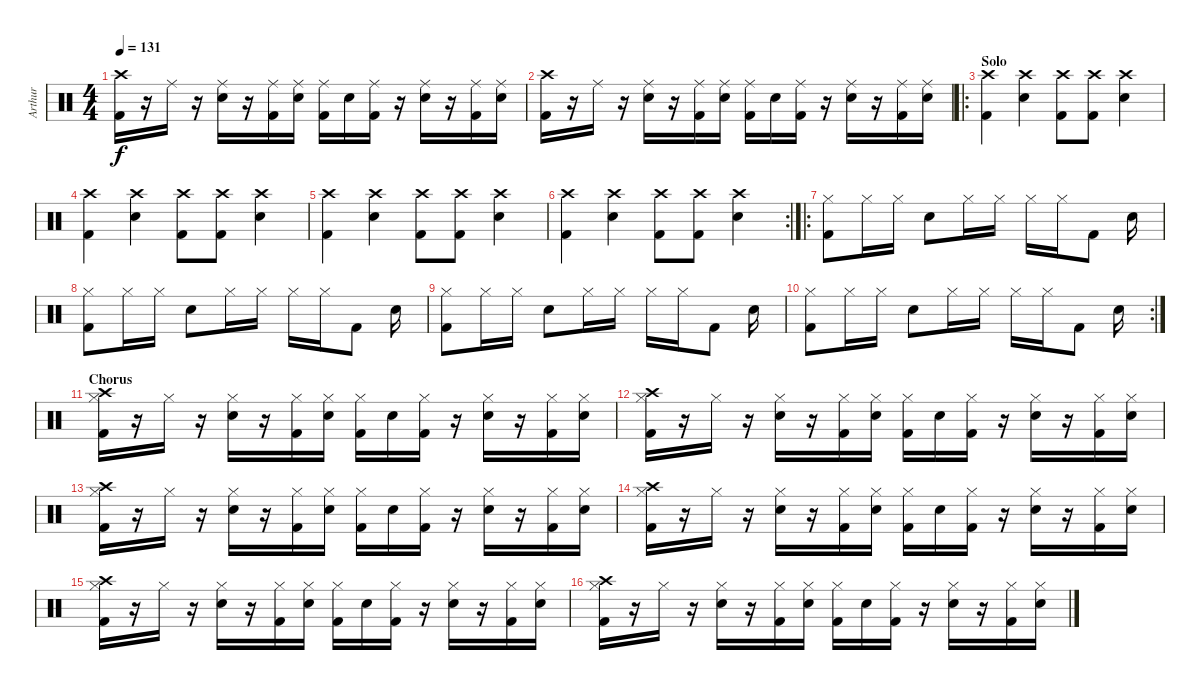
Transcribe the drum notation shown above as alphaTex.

\track ("Arthur" "Arthur") {instrument percussion}
\staff {score}
\articulation defaults
\ts (4 4)
\tempo 131
\clef neutral
\ks c
("Kick (hit) 2" "Crash high (hit)").16{dy f} r.16 "Ride (middle)".16 r.16 ("Ride (middle)" "Snare (hit) 2").16 r.16 ("Ride (middle)" "Kick (hit) 2").16 ("Ride (middle)" "Snare (hit) 2").16 ("Ride (middle)" "Kick (hit) 2").16 "Snare (hit) 2".16 ("Ride (middle)" "Kick (hit) 2").16 r.16 ("Ride (middle)" "Snare (hit) 2").16 r.16 ("Ride (middle)" "Kick (hit) 2").16 ("Ride (middle)" "Snare (hit) 2").16 |
("Kick (hit) 2" "Crash high (hit)").16 r.16 "Ride (middle)".16 r.16 ("Ride (middle)" "Snare (hit) 2").16 r.16 ("Ride (middle)" "Kick (hit) 2").16 ("Ride (middle)" "Snare (hit) 2").16 ("Ride (middle)" "Kick (hit) 2").16 "Snare (hit) 2".16 ("Ride (middle)" "Kick (hit) 2").16 r.16 ("Ride (middle)" "Snare (hit) 2").16 r.16 ("Ride (middle)" "Kick (hit) 2").16 ("Ride (middle)" "Snare (hit) 2").16 |
\ro
\section ("" "Solo")
("Crash high (hit)" "Kick (hit) 2").4 ("Crash high (hit)" "Snare (hit) 2").4 ("Crash high (hit)" "Kick (hit) 2").8 ("Crash high (hit)" "Kick (hit) 2").8 ("Crash high (hit)" "Snare (hit) 2").4 |
("Crash high (hit)" "Kick (hit) 2").4 ("Crash high (hit)" "Snare (hit) 2").4 ("Crash high (hit)" "Kick (hit) 2").8 ("Crash high (hit)" "Kick (hit) 2").8 ("Crash high (hit)" "Snare (hit) 2").4 |
("Crash high (hit)" "Kick (hit) 2").4 ("Crash high (hit)" "Snare (hit) 2").4 ("Crash high (hit)" "Kick (hit) 2").8 ("Crash high (hit)" "Kick (hit) 2").8 ("Crash high (hit)" "Snare (hit) 2").4 |
\rc 2
("Crash high (hit)" "Kick (hit) 2").4 ("Crash high (hit)" "Snare (hit) 2").4 ("Crash high (hit)" "Kick (hit) 2").8 ("Crash high (hit)" "Kick (hit) 2").8 ("Crash high (hit)" "Snare (hit) 2").4 |
\ro
("Hi-Hat (closed)" "Kick (hit) 2").8 "Hi-Hat (closed)".16 "Hi-Hat (closed)".16 "Snare (hit) 2".8 "Hi-Hat (closed)".16 "Hi-Hat (closed)".16 "Hi-Hat (closed)".16 "Hi-Hat (closed)".16 "Kick (hit) 2".8 "Snare (hit) 2".16 |
("Hi-Hat (closed)" "Kick (hit) 2").8 "Hi-Hat (closed)".16 "Hi-Hat (closed)".16 "Snare (hit) 2".8 "Hi-Hat (closed)".16 "Hi-Hat (closed)".16 "Hi-Hat (closed)".16 "Hi-Hat (closed)".16 "Kick (hit) 2".8 "Snare (hit) 2".16 |
("Hi-Hat (closed)" "Kick (hit) 2").8 "Hi-Hat (closed)".16 "Hi-Hat (closed)".16 "Snare (hit) 2".8 "Hi-Hat (closed)".16 "Hi-Hat (closed)".16 "Hi-Hat (closed)".16 "Hi-Hat (closed)".16 "Kick (hit) 2".8 "Snare (hit) 2".16 |
\rc 2
("Hi-Hat (closed)" "Kick (hit) 2").8 "Hi-Hat (closed)".16 "Hi-Hat (closed)".16 "Snare (hit) 2".8 "Hi-Hat (closed)".16 "Hi-Hat (closed)".16 "Hi-Hat (closed)".16 "Hi-Hat (closed)".16 "Kick (hit) 2".8 "Snare (hit) 2".16 |
\section ("" "Chorus")
("Hi-Hat (closed)" "Kick (hit) 2" "Crash high (hit)").16 r.16 "Hi-Hat (closed)".16 r.16 ("Hi-Hat (closed)" "Snare (hit) 2").16 r.16 ("Hi-Hat (closed)" "Kick (hit) 2").16 ("Hi-Hat (closed)" "Snare (hit) 2").16 ("Hi-Hat (closed)" "Kick (hit) 2").16 "Snare (hit) 2".16 ("Hi-Hat (closed)" "Kick (hit) 2").16 r.16 ("Hi-Hat (closed)" "Snare (hit) 2").16 r.16 ("Hi-Hat (closed)" "Kick (hit) 2").16 ("Hi-Hat (closed)" "Snare (hit) 2").16 |
("Hi-Hat (closed)" "Kick (hit) 2" "Crash high (hit)").16 r.16 "Hi-Hat (closed)".16 r.16 ("Hi-Hat (closed)" "Snare (hit) 2").16 r.16 ("Hi-Hat (closed)" "Kick (hit) 2").16 ("Hi-Hat (closed)" "Snare (hit) 2").16 ("Hi-Hat (closed)" "Kick (hit) 2").16 "Snare (hit) 2".16 ("Hi-Hat (closed)" "Kick (hit) 2").16 r.16 ("Hi-Hat (closed)" "Snare (hit) 2").16 r.16 ("Hi-Hat (closed)" "Kick (hit) 2").16 ("Hi-Hat (closed)" "Snare (hit) 2").16 |
("Hi-Hat (closed)" "Kick (hit) 2" "Crash high (hit)").16 r.16 "Hi-Hat (closed)".16 r.16 ("Hi-Hat (closed)" "Snare (hit) 2").16 r.16 ("Hi-Hat (closed)" "Kick (hit) 2").16 ("Hi-Hat (closed)" "Snare (hit) 2").16 ("Hi-Hat (closed)" "Kick (hit) 2").16 "Snare (hit) 2".16 ("Hi-Hat (closed)" "Kick (hit) 2").16 r.16 ("Hi-Hat (closed)" "Snare (hit) 2").16 r.16 ("Hi-Hat (closed)" "Kick (hit) 2").16 ("Hi-Hat (closed)" "Snare (hit) 2").16 |
("Hi-Hat (closed)" "Kick (hit) 2" "Crash high (hit)").16 r.16 "Hi-Hat (closed)".16 r.16 ("Hi-Hat (closed)" "Snare (hit) 2").16 r.16 ("Hi-Hat (closed)" "Kick (hit) 2").16 ("Hi-Hat (closed)" "Snare (hit) 2").16 ("Hi-Hat (closed)" "Kick (hit) 2").16 "Snare (hit) 2".16 ("Hi-Hat (closed)" "Kick (hit) 2").16 r.16 ("Hi-Hat (closed)" "Snare (hit) 2").16 r.16 ("Hi-Hat (closed)" "Kick (hit) 2").16 ("Hi-Hat (closed)" "Snare (hit) 2").16 |
("Hi-Hat (closed)" "Kick (hit) 2" "Crash high (hit)").16 r.16 "Hi-Hat (closed)".16 r.16 ("Hi-Hat (closed)" "Snare (hit) 2").16 r.16 ("Hi-Hat (closed)" "Kick (hit) 2").16 ("Hi-Hat (closed)" "Snare (hit) 2").16 ("Hi-Hat (closed)" "Kick (hit) 2").16 "Snare (hit) 2".16 ("Hi-Hat (closed)" "Kick (hit) 2").16 r.16 ("Hi-Hat (closed)" "Snare (hit) 2").16 r.16 ("Hi-Hat (closed)" "Kick (hit) 2").16 ("Hi-Hat (closed)" "Snare (hit) 2").16 |
("Hi-Hat (closed)" "Kick (hit) 2" "Crash high (hit)").16 r.16 "Hi-Hat (closed)".16 r.16 ("Hi-Hat (closed)" "Snare (hit) 2").16 r.16 ("Hi-Hat (closed)" "Kick (hit) 2").16 ("Hi-Hat (closed)" "Snare (hit) 2").16 ("Hi-Hat (closed)" "Kick (hit) 2").16 "Snare (hit) 2".16 ("Hi-Hat (closed)" "Kick (hit) 2").16 r.16 ("Hi-Hat (closed)" "Snare (hit) 2").16 r.16 ("Hi-Hat (closed)" "Kick (hit) 2").16 ("Hi-Hat (closed)" "Snare (hit) 2").16
